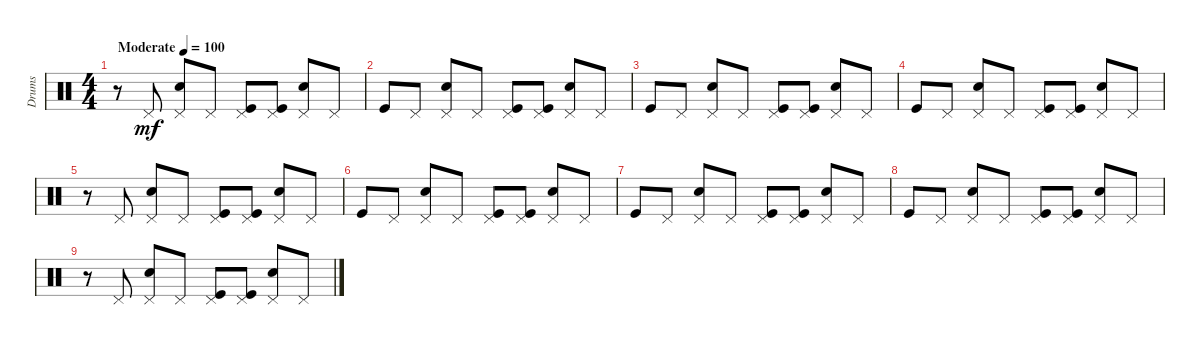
\track ("Drums" "Drums") {instrument percussion}
\staff {score}
\articulation defaults
\ts (4 4)
\tempo (100 "Moderate")
\clef neutral
\ks c
r.8{dy mf} "Pedal Hi-Hat (hit)".8 ("Electric Snare (hit)" "Pedal Hi-Hat (hit)").8 "Pedal Hi-Hat (hit)".8 ("Kick (hit)" "Pedal Hi-Hat (hit)").8 ("Kick (hit)" "Pedal Hi-Hat (hit)").8 ("Electric Snare (hit)" "Pedal Hi-Hat (hit)").8 "Pedal Hi-Hat (hit)".8 |
"Kick (hit)".8 "Pedal Hi-Hat (hit)".8 ("Electric Snare (hit)" "Pedal Hi-Hat (hit)").8 "Pedal Hi-Hat (hit)".8 ("Kick (hit)" "Pedal Hi-Hat (hit)").8 ("Kick (hit)" "Pedal Hi-Hat (hit)").8 ("Electric Snare (hit)" "Pedal Hi-Hat (hit)").8 "Pedal Hi-Hat (hit)".8 |
"Kick (hit)".8 "Pedal Hi-Hat (hit)".8 ("Electric Snare (hit)" "Pedal Hi-Hat (hit)").8 "Pedal Hi-Hat (hit)".8 ("Kick (hit)" "Pedal Hi-Hat (hit)").8 ("Kick (hit)" "Pedal Hi-Hat (hit)").8 ("Electric Snare (hit)" "Pedal Hi-Hat (hit)").8 "Pedal Hi-Hat (hit)".8 |
"Kick (hit)".8 "Pedal Hi-Hat (hit)".8 ("Electric Snare (hit)" "Pedal Hi-Hat (hit)").8 "Pedal Hi-Hat (hit)".8 ("Kick (hit)" "Pedal Hi-Hat (hit)").8 ("Kick (hit)" "Pedal Hi-Hat (hit)").8 ("Electric Snare (hit)" "Pedal Hi-Hat (hit)").8 "Pedal Hi-Hat (hit)".8 |
r.8 "Pedal Hi-Hat (hit)".8 ("Electric Snare (hit)" "Pedal Hi-Hat (hit)").8 "Pedal Hi-Hat (hit)".8 ("Kick (hit)" "Pedal Hi-Hat (hit)").8 ("Kick (hit)" "Pedal Hi-Hat (hit)").8 ("Electric Snare (hit)" "Pedal Hi-Hat (hit)").8 "Pedal Hi-Hat (hit)".8 |
"Kick (hit)".8 "Pedal Hi-Hat (hit)".8 ("Electric Snare (hit)" "Pedal Hi-Hat (hit)").8 "Pedal Hi-Hat (hit)".8 ("Kick (hit)" "Pedal Hi-Hat (hit)").8 ("Kick (hit)" "Pedal Hi-Hat (hit)").8 ("Electric Snare (hit)" "Pedal Hi-Hat (hit)").8 "Pedal Hi-Hat (hit)".8 |
"Kick (hit)".8 "Pedal Hi-Hat (hit)".8 ("Electric Snare (hit)" "Pedal Hi-Hat (hit)").8 "Pedal Hi-Hat (hit)".8 ("Kick (hit)" "Pedal Hi-Hat (hit)").8 ("Kick (hit)" "Pedal Hi-Hat (hit)").8 ("Electric Snare (hit)" "Pedal Hi-Hat (hit)").8 "Pedal Hi-Hat (hit)".8 |
"Kick (hit)".8 "Pedal Hi-Hat (hit)".8 ("Electric Snare (hit)" "Pedal Hi-Hat (hit)").8 "Pedal Hi-Hat (hit)".8 ("Kick (hit)" "Pedal Hi-Hat (hit)").8 ("Kick (hit)" "Pedal Hi-Hat (hit)").8 ("Electric Snare (hit)" "Pedal Hi-Hat (hit)").8 "Pedal Hi-Hat (hit)".8 |
r.8 "Pedal Hi-Hat (hit)".8 ("Electric Snare (hit)" "Pedal Hi-Hat (hit)").8 "Pedal Hi-Hat (hit)".8 ("Kick (hit)" "Pedal Hi-Hat (hit)").8 ("Kick (hit)" "Pedal Hi-Hat (hit)").8 ("Electric Snare (hit)" "Pedal Hi-Hat (hit)").8 "Pedal Hi-Hat (hit)".8
